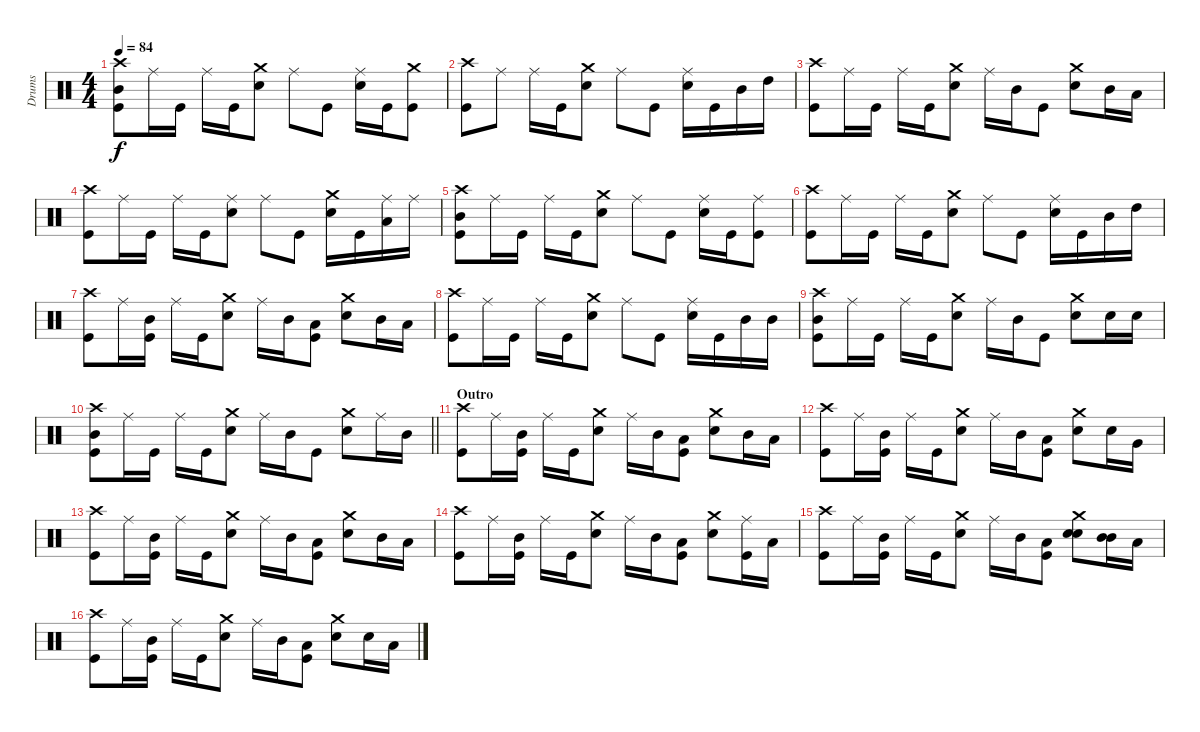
\track ("Drums" "Drums") {instrument percussion}
\staff {score}
\articulation defaults
\ts (4 4)
\tempo 84
\clef neutral
\ks c
("Crash high (hit)" "Mid Tom (hit)" "Kick (hit)").8{dy f} "Ride (middle)".16 "Kick (hit)".16 "Ride (middle)".16 "Kick (hit)".16 ("Crash medium (hit)" "Electric Snare (hit)").8 "Ride (middle)".8 "Kick (hit)".8 ("Ride (middle)" "Electric Snare (hit)").16 "Kick (hit)".16 ("Crash medium (hit)" "Kick (hit)").8 |
("Crash high (hit)" "Kick (hit)").8 "Ride (middle)".8 "Ride (middle)".16 "Kick (hit)".16 ("Crash medium (hit)" "Electric Snare (hit)").8 "Ride (middle)".8 "Kick (hit)".8 ("Ride (middle)" "Electric Snare (hit)").16 "Kick (hit)".16 "Mid Tom (hit)".16 "High Tom (hit)".16 |
("Crash high (hit)" "Kick (hit)").8 "Ride (middle)".16 "Kick (hit)".16 "Ride (middle)".16 "Kick (hit)".16 ("Crash medium (hit)" "Electric Snare (hit)").8 "Ride (middle)".16 "Mid Tom (hit)".16 "Kick (hit)".8 ("Crash medium (hit)" "Electric Snare (hit)").8 "Mid Tom (hit)".16 "Low Tom (hit)".16 |
("Crash high (hit)" "Kick (hit)").8 "Ride (middle)".16 "Kick (hit)".16 "Ride (middle)".16 "Kick (hit)".16 ("Ride (middle)" "Electric Snare (hit)").8 "Ride (middle)".8 "Kick (hit)".8 ("Crash medium (hit)" "Electric Snare (hit)").16 "Kick (hit)".16 ("Ride (middle)" "Low Tom (hit)").16 "Ride (middle)".16 |
("Crash high (hit)" "Mid Tom (hit)" "Kick (hit)").8 "Ride (middle)".16 "Kick (hit)".16 "Ride (middle)".16 "Kick (hit)".16 ("Crash medium (hit)" "Electric Snare (hit)").8 "Ride (middle)".8 "Kick (hit)".8 ("Ride (middle)" "Electric Snare (hit)").16 "Kick (hit)".16 ("Ride (middle)" "Kick (hit)").8 |
("Crash high (hit)" "Kick (hit)").8 "Ride (middle)".16 "Kick (hit)".16 "Ride (middle)".16 "Kick (hit)".16 ("Crash medium (hit)" "Electric Snare (hit)").8 "Ride (middle)".8 "Kick (hit)".8 ("Ride (middle)" "Electric Snare (hit)").16 "Kick (hit)".16 "Mid Tom (hit)".16 "High Tom (hit)".16 |
("Crash high (hit)" "Kick (hit)").8 "Ride (middle)".16 ("Mid Tom (hit)" "Kick (hit)").16 "Ride (middle)".16 "Kick (hit)".16 ("Crash medium (hit)" "Electric Snare (hit)").8 "Ride (middle)".16 "Mid Tom (hit)".16 ("Low Tom (hit)" "Kick (hit)").8 ("Crash medium (hit)" "Electric Snare (hit)").8 "Mid Tom (hit)".16 "Low Tom (hit)".16 |
("Crash high (hit)" "Kick (hit)").8 "Ride (middle)".16 "Kick (hit)".16 "Ride (middle)".16 "Kick (hit)".16 ("Crash medium (hit)" "Electric Snare (hit)").8 "Ride (middle)".8 "Kick (hit)".8 ("Ride (middle)" "Electric Snare (hit)").16 "Kick (hit)".16 "Mid Tom (hit)".16 "Mid Tom (hit)".16 |
("Crash high (hit)" "Mid Tom (hit)" "Kick (hit)").8 "Ride (middle)".16 "Kick (hit)".16 "Ride (middle)".16 "Kick (hit)".16 ("Crash medium (hit)" "Electric Snare (hit)").8 "Ride (middle)".16 "Mid Tom (hit)".16 "Kick (hit)".8 ("Crash medium (hit)" "Electric Snare (hit)").8 "Electric Snare (hit)".16 "Electric Snare (hit)".16 |
\barLineRight lightlight
("Crash high (hit)" "Mid Tom (hit)" "Kick (hit)").8 "Ride (middle)".16 "Kick (hit)".16 "Ride (middle)".16 "Kick (hit)".16 ("Crash medium (hit)" "Electric Snare (hit)").8 "Ride (middle)".16 "Mid Tom (hit)".16 "Kick (hit)".8 ("Crash medium (hit)" "Electric Snare (hit)").8 "Ride (middle)".16 "Mid Tom (hit)".16 |
\section ("" "Outro")
("Crash high (hit)" "Kick (hit)").8 "Ride (middle)".16 ("Mid Tom (hit)" "Kick (hit)").16 "Ride (middle)".16 "Kick (hit)".16 ("Crash medium (hit)" "Electric Snare (hit)").8 "Ride (middle)".16 "Mid Tom (hit)".16 ("Low Tom (hit)" "Kick (hit)").8 ("Crash medium (hit)" "Electric Snare (hit)").8 "Mid Tom (hit)".16 "Low Tom (hit)".16 |
("Crash high (hit)" "Kick (hit)").8 "Ride (middle)".16 ("Mid Tom (hit)" "Kick (hit)").16 "Ride (middle)".16 "Kick (hit)".16 ("Crash medium (hit)" "Electric Snare (hit)").8 "Ride (middle)".16 "Mid Tom (hit)".16 ("Low Tom (hit)" "Kick (hit)").8 ("Crash medium (hit)" "Electric Snare (hit)").8 "Electric Snare (hit)".16 "Very Low Tom (hit)".16 |
("Crash high (hit)" "Kick (hit)").8 "Ride (middle)".16 ("Mid Tom (hit)" "Kick (hit)").16 "Ride (middle)".16 "Kick (hit)".16 ("Crash medium (hit)" "Electric Snare (hit)").8 "Ride (middle)".16 "Mid Tom (hit)".16 ("Low Tom (hit)" "Kick (hit)").8 ("Crash medium (hit)" "Electric Snare (hit)").8 "Mid Tom (hit)".16 "Low Tom (hit)".16 |
("Crash high (hit)" "Kick (hit)").8 "Ride (middle)".16 ("Mid Tom (hit)" "Kick (hit)").16 "Ride (middle)".16 "Kick (hit)".16 ("Crash medium (hit)" "Electric Snare (hit)").8 "Ride (middle)".16 "Mid Tom (hit)".16 ("Low Tom (hit)" "Kick (hit)").8 ("Crash medium (hit)" "Electric Snare (hit)").8 ("Ride (middle)" "Kick (hit)").16 "Low Tom (hit)".16 |
("Crash high (hit)" "Kick (hit)").8 "Ride (middle)".16 ("Mid Tom (hit)" "Kick (hit)").16 "Ride (middle)".16 "Kick (hit)".16 ("Crash medium (hit)" "Electric Snare (hit)").8 "Ride (middle)".16 "Mid Tom (hit)".16 ("Low Tom (hit)" "Kick (hit)").8 ("Crash medium (hit)" "Electric Snare (hit)" "Electric Snare (hit)").8 ("Mid Tom (hit)" "Mid Tom (hit)").16 "Low Tom (hit)".16 |
("Crash high (hit)" "Kick (hit)").8 "Ride (middle)".16 ("Mid Tom (hit)" "Kick (hit)").16 "Ride (middle)".16 "Kick (hit)".16 ("Crash medium (hit)" "Electric Snare (hit)").8 "Ride (middle)".16 "Mid Tom (hit)".16 ("Low Tom (hit)" "Kick (hit)").8 ("Crash medium (hit)" "Electric Snare (hit)").8 "Electric Snare (hit)".16 "Low Tom (hit)".16
